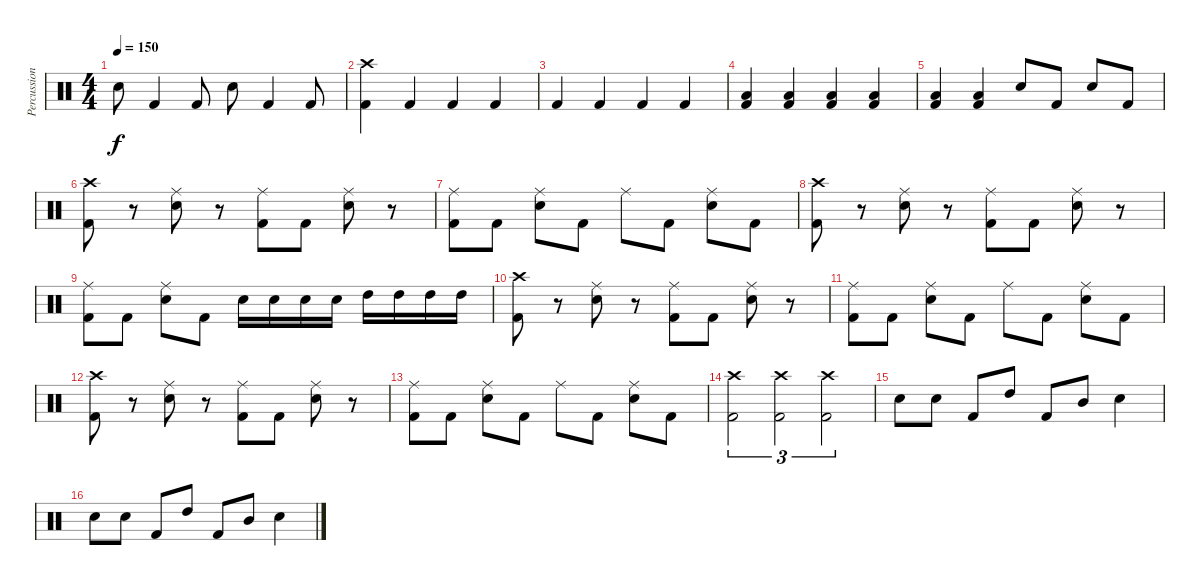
\track ("Percussion" "Percussion") {instrument percussion}
\staff {score}
\articulation defaults
\ts (4 4)
\tempo 150
\clef neutral
\ks c "Electric Snare (hit)".8{dy f} "Kick (hit) 2".4 "Kick (hit) 2".8 "Electric Snare (hit)".8 "Kick (hit) 2".4 "Kick (hit) 2".8
|
("Crash high (hit)" "Kick (hit) 2").4 "Kick (hit) 2".4 "Kick (hit) 2".4 "Kick (hit) 2".4 |
"Kick (hit) 2".4 "Kick (hit) 2".4 "Kick (hit) 2".4 "Kick (hit) 2".4 |
("Low Tom (hit)" "Kick (hit) 2").4 ("Low Tom (hit)" "Kick (hit) 2").4 ("Low Tom (hit)" "Kick (hit) 2").4 ("Low Tom (hit)" "Kick (hit) 2").4 |
("Low Tom (hit)" "Kick (hit) 2").4 ("Low Tom (hit)" "Kick (hit) 2").4 "Electric Snare (hit)".8 "Kick (hit) 2".8 "Electric Snare (hit)".8 "Kick (hit) 2".8 |
("Crash high (hit)" "Kick (hit) 2").8 r.8 ("Ride (middle)" "Electric Snare (hit)").8 r.8 ("Ride (middle)" "Kick (hit) 2").8 "Kick (hit) 2".8 ("Ride (middle)" "Electric Snare (hit)").8 r.8 |
("Ride (middle)" "Kick (hit) 2").8 "Kick (hit) 2".8 ("Ride (middle)" "Electric Snare (hit)").8 "Kick (hit) 2".8 "Ride (middle)".8 "Kick (hit) 2".8 ("Ride (middle)" "Electric Snare (hit)").8 "Kick (hit) 2".8 |
("Crash high (hit)" "Kick (hit) 2").8 r.8 ("Ride (middle)" "Electric Snare (hit)").8 r.8 ("Ride (middle)" "Kick (hit) 2").8 "Kick (hit) 2".8 ("Ride (middle)" "Electric Snare (hit)").8 r.8 |
("Ride (middle)" "Kick (hit) 2").8 "Kick (hit) 2".8 ("Ride (middle)" "Electric Snare (hit)").8 "Kick (hit) 2".8 "Electric Snare (hit)".16 "Electric Snare (hit)".16 "Electric Snare (hit)".16 "Electric Snare (hit)".16 "High Tom (hit)".16 "High Tom (hit)".16 "High Tom (hit)".16 "High Tom (hit)".16 |
("Crash high (hit)" "Kick (hit) 2").8 r.8 ("Ride (middle)" "Electric Snare (hit)").8 r.8 ("Ride (middle)" "Kick (hit) 2").8 "Kick (hit) 2".8 ("Ride (middle)" "Electric Snare (hit)").8 r.8 |
("Ride (middle)" "Kick (hit) 2").8 "Kick (hit) 2".8 ("Ride (middle)" "Electric Snare (hit)").8 "Kick (hit) 2".8 "Ride (middle)".8 "Kick (hit) 2".8 ("Ride (middle)" "Electric Snare (hit)").8 "Kick (hit) 2".8 |
("Crash high (hit)" "Kick (hit) 2").8 r.8 ("Ride (middle)" "Electric Snare (hit)").8 r.8 ("Ride (middle)" "Kick (hit) 2").8 "Kick (hit) 2".8 ("Ride (middle)" "Electric Snare (hit)").8 r.8 |
("Ride (middle)" "Kick (hit) 2").8 "Kick (hit) 2".8 ("Ride (middle)" "Electric Snare (hit)").8 "Kick (hit) 2".8 "Ride (middle)".8 "Kick (hit) 2".8 ("Ride (middle)" "Electric Snare (hit)").8 "Kick (hit) 2".8 |
("Crash high (hit)" "Kick (hit) 2").2{tu (3 2)} ("Crash high (hit)" "Kick (hit) 2").2{tu (3 2)} ("Crash high (hit)" "Kick (hit) 2").2{tu (3 2)} |
"Electric Snare (hit)".8 "Electric Snare (hit)".8 "Kick (hit) 2".8 "High Tom (hit)".8 "Kick (hit) 2".8 "Mid Tom (hit)".8 "Electric Snare (hit)".4 |
"Electric Snare (hit)".8 "Electric Snare (hit)".8 "Kick (hit) 2".8 "High Tom (hit)".8 "Kick (hit) 2".8 "Mid Tom (hit)".8 "Electric Snare (hit)".4
